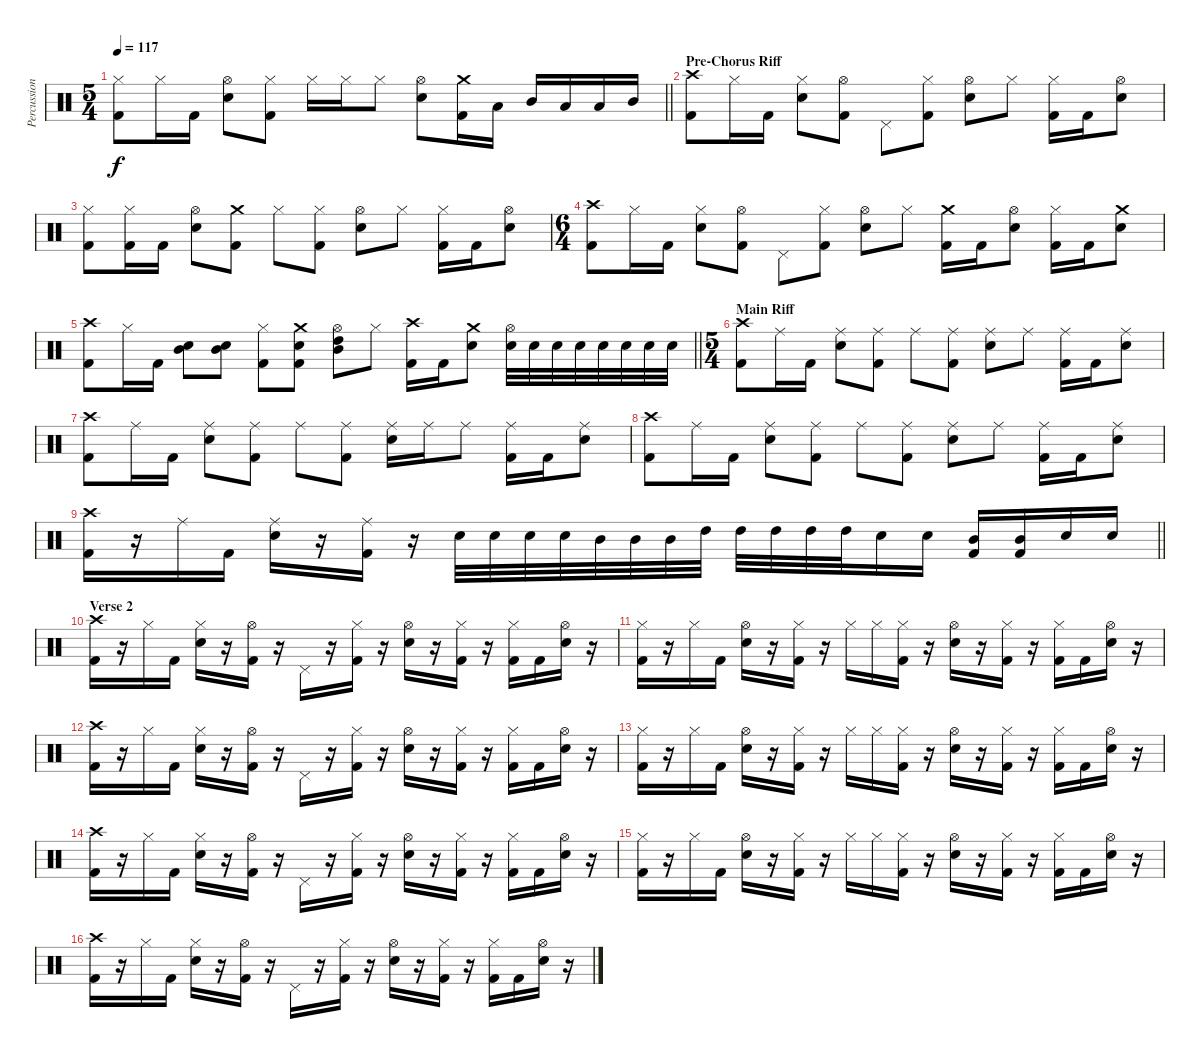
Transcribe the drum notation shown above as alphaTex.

\track ("Percussion" "Percussion") {instrument percussion}
\staff {score}
\articulation defaults
\ts (5 4)
\tempo 117
\clef neutral
\barLineRight lightlight
\ks c
("Hi-Hat (closed)" "Kick (hit) 2").8{dy f} "Hi-Hat (closed)".16 "Kick (hit) 2".16 ("Hi-Hat (open)" "Electric Snare (hit)").8 ("Hi-Hat (closed)" "Kick (hit) 2").8 "Hi-Hat (closed)".16 "Hi-Hat (closed)".16 "Hi-Hat (closed)".8 ("Hi-Hat (open)" "Electric Snare (hit)").8 ("Crash medium (hit)" "Kick (hit) 2").16 "Low Tom (hit)".16 "Mid Tom (hit)".16 "Low Tom (hit)".16 "Low Tom (hit)".16 "Mid Tom (hit)".16 |
\section ("" "Pre-Chorus Riff")
("Crash high (hit)" "Kick (hit) 2").8 "Hi-Hat (closed)".16 "Kick (hit) 2".16 ("Hi-Hat (closed)" "Electric Snare (hit)").8 ("Hi-Hat (open)" "Kick (hit) 2").8 "Pedal Hi-Hat (hit)".8 ("Hi-Hat (closed)" "Kick (hit) 2").8 ("Hi-Hat (open)" "Electric Snare (hit)").8 "Hi-Hat (closed)".8 ("Hi-Hat (closed)" "Kick (hit) 2").16 "Kick (hit) 2".16 ("Hi-Hat (open)" "Electric Snare (hit)").8 |
("Hi-Hat (closed)" "Kick (hit) 2").8 ("Hi-Hat (closed)" "Kick (hit) 2").16 "Kick (hit) 2".16 ("Hi-Hat (open)" "Electric Snare (hit)").8 ("Crash medium (hit)" "Kick (hit) 2").8 "Hi-Hat (closed)".8 ("Hi-Hat (closed)" "Kick (hit) 2").8 ("Hi-Hat (open)" "Electric Snare (hit)").8 "Hi-Hat (closed)".8 ("Hi-Hat (closed)" "Kick (hit) 2").16 "Kick (hit) 2".16 ("Hi-Hat (open)" "Electric Snare (hit)").8 |
\ts (6 4)
("Crash high (hit)" "Kick (hit) 2").8 "Hi-Hat (closed)".16 "Kick (hit) 2".16 ("Hi-Hat (closed)" "Electric Snare (hit)").8 ("Hi-Hat (open)" "Kick (hit) 2").8 "Pedal Hi-Hat (hit)".8 ("Hi-Hat (closed)" "Kick (hit) 2").8 ("Hi-Hat (open)" "Electric Snare (hit)").8 "Hi-Hat (closed)".8 ("Crash medium (hit)" "Kick (hit) 2").16 "Kick (hit) 2".16 ("Hi-Hat (open)" "Electric Snare (hit)").8 ("Hi-Hat (closed)" "Kick (hit) 2").16 "Kick (hit) 2".16 ("Crash medium (hit)" "Electric Snare (hit)").8 |
\barLineRight lightlight
("Crash high (hit)" "Kick (hit) 2").8 "Hi-Hat (closed)".16 "Kick (hit) 2".16 ("Mid Tom (hit)" "Electric Snare (hit)").8 ("Mid Tom (hit)" "Electric Snare (hit)").8 ("Hi-Hat (closed)" "Kick (hit) 2").8 ("Crash medium (hit)" "Electric Snare (hit)" "Kick (hit) 2").8 ("Hi-Hat (open)" "High Tom (hit)" "Mid Tom (hit)").8 "Hi-Hat (closed)".8 ("Crash high (hit)" "Kick (hit) 2").16 "Kick (hit) 2".16 ("Crash medium (hit)" "Electric Snare (hit)").8 ("Hi-Hat (open)" "Electric Snare (hit)").32 "Electric Snare (hit)".32 "Electric Snare (hit)".32 "Electric Snare (hit)".32 "Electric Snare (hit)".32 "Electric Snare (hit)".32 "Electric Snare (hit)".32 "Electric Snare (hit)".32 |
\ts (5 4)
\section ("" "Main Riff")
("Crash high (hit)" "Kick (hit) 2").8 "Ride (middle)".16 "Kick (hit) 2".16 ("Ride (middle)" "Electric Snare (hit)").8 ("Ride (middle)" "Kick (hit) 2").8 "Ride (middle)".8 ("Ride (middle)" "Kick (hit) 2").8 ("Ride (middle)" "Electric Snare (hit)").8 "Ride (middle)".8 ("Ride (middle)" "Kick (hit) 2").16 "Kick (hit) 2".16 ("Ride (middle)" "Electric Snare (hit)").8 |
("Crash high (hit)" "Kick (hit) 2").8 "Ride (middle)".16 "Kick (hit) 2".16 ("Ride (middle)" "Electric Snare (hit)").8 ("Ride (middle)" "Kick (hit) 2").8 "Ride (middle)".8 ("Ride (middle)" "Kick (hit) 2").8 ("Ride (middle)" "Electric Snare (hit)").16 "Ride (middle)".16 "Ride (middle)".8 ("Ride (middle)" "Kick (hit) 2").16 "Kick (hit) 2".16 ("Ride (middle)" "Electric Snare (hit)").8 |
("Crash high (hit)" "Kick (hit) 2").8 "Ride (middle)".16 "Kick (hit) 2".16 ("Ride (middle)" "Electric Snare (hit)").8 ("Ride (middle)" "Kick (hit) 2").8 "Ride (middle)".8 ("Ride (middle)" "Kick (hit) 2").8 ("Ride (middle)" "Electric Snare (hit)").8 "Ride (middle)".8 ("Ride (middle)" "Kick (hit) 2").16 "Kick (hit) 2".16 ("Ride (middle)" "Electric Snare (hit)").8 |
\barLineRight lightlight
("Crash high (hit)" "Kick (hit) 2").16 r.16 "Ride (middle)".16 "Kick (hit) 2".16 ("Ride (middle)" "Electric Snare (hit)").16 r.16 ("Ride (middle)" "Kick (hit) 2").16 r.16 "Electric Snare (hit)".32 "Electric Snare (hit)".32 "Electric Snare (hit)".32 "Electric Snare (hit)".32 "Mid Tom (hit)".32 "Mid Tom (hit)".32 "Mid Tom (hit)".32 "High Tom (hit)".32 "High Tom (hit)".32 "High Tom (hit)".32 "High Tom (hit)".32 "High Tom (hit)".32 "Electric Snare (hit)".16 "Electric Snare (hit)".16 ("Mid Tom (hit)" "Kick (hit) 2").16 ("Mid Tom (hit)" "Kick (hit) 2").16 "Electric Snare (hit)".16 "Electric Snare (hit)".16 |
\section ("" "Verse 2")
("Crash high (hit)" "Kick (hit) 2").16 r.16 "Hi-Hat (closed)".16 "Kick (hit) 2".16 ("Hi-Hat (closed)" "Electric Snare (hit)").16 r.16 ("Hi-Hat (open)" "Kick (hit) 2").16 r.16 "Pedal Hi-Hat (hit)".16 r.16 ("Hi-Hat (closed)" "Kick (hit) 2").16 r.16 ("Hi-Hat (open)" "Electric Snare (hit)").16 r.16 ("Hi-Hat (closed)" "Kick (hit) 2").16 r.16 ("Hi-Hat (closed)" "Kick (hit) 2").16 "Kick (hit) 2".16 ("Hi-Hat (open)" "Electric Snare (hit)").16 r.16 |
("Hi-Hat (closed)" "Kick (hit) 2").16 r.16 "Hi-Hat (closed)".16 "Kick (hit) 2".16 ("Hi-Hat (open)" "Electric Snare (hit)").16 r.16 ("Hi-Hat (closed)" "Kick (hit) 2").16 r.16 "Hi-Hat (closed)".16 "Hi-Hat (closed)".16 ("Hi-Hat (closed)" "Kick (hit) 2").16 r.16 ("Hi-Hat (open)" "Electric Snare (hit)").16 r.16 ("Hi-Hat (closed)" "Kick (hit) 2").16 r.16 ("Hi-Hat (closed)" "Kick (hit) 2").16 "Kick (hit) 2".16 ("Hi-Hat (open)" "Electric Snare (hit)").16 r.16 |
("Crash high (hit)" "Kick (hit) 2").16 r.16 "Hi-Hat (closed)".16 "Kick (hit) 2".16 ("Hi-Hat (closed)" "Electric Snare (hit)").16 r.16 ("Hi-Hat (open)" "Kick (hit) 2").16 r.16 "Pedal Hi-Hat (hit)".16 r.16 ("Hi-Hat (closed)" "Kick (hit) 2").16 r.16 ("Hi-Hat (open)" "Electric Snare (hit)").16 r.16 ("Hi-Hat (closed)" "Kick (hit) 2").16 r.16 ("Hi-Hat (closed)" "Kick (hit) 2").16 "Kick (hit) 2".16 ("Hi-Hat (open)" "Electric Snare (hit)").16 r.16 |
("Hi-Hat (closed)" "Kick (hit) 2").16 r.16 "Hi-Hat (closed)".16 "Kick (hit) 2".16 ("Hi-Hat (open)" "Electric Snare (hit)").16 r.16 ("Hi-Hat (closed)" "Kick (hit) 2").16 r.16 "Hi-Hat (closed)".16 "Hi-Hat (closed)".16 ("Hi-Hat (closed)" "Kick (hit) 2").16 r.16 ("Hi-Hat (open)" "Electric Snare (hit)").16 r.16 ("Hi-Hat (closed)" "Kick (hit) 2").16 r.16 ("Hi-Hat (closed)" "Kick (hit) 2").16 "Kick (hit) 2".16 ("Hi-Hat (open)" "Electric Snare (hit)").16 r.16 |
("Crash high (hit)" "Kick (hit) 2").16 r.16 "Hi-Hat (closed)".16 "Kick (hit) 2".16 ("Hi-Hat (closed)" "Electric Snare (hit)").16 r.16 ("Hi-Hat (open)" "Kick (hit) 2").16 r.16 "Pedal Hi-Hat (hit)".16 r.16 ("Hi-Hat (closed)" "Kick (hit) 2").16 r.16 ("Hi-Hat (open)" "Electric Snare (hit)").16 r.16 ("Hi-Hat (closed)" "Kick (hit) 2").16 r.16 ("Hi-Hat (closed)" "Kick (hit) 2").16 "Kick (hit) 2".16 ("Hi-Hat (open)" "Electric Snare (hit)").16 r.16 |
("Hi-Hat (closed)" "Kick (hit) 2").16 r.16 "Hi-Hat (closed)".16 "Kick (hit) 2".16 ("Hi-Hat (open)" "Electric Snare (hit)").16 r.16 ("Hi-Hat (closed)" "Kick (hit) 2").16 r.16 "Hi-Hat (closed)".16 "Hi-Hat (closed)".16 ("Hi-Hat (closed)" "Kick (hit) 2").16 r.16 ("Hi-Hat (open)" "Electric Snare (hit)").16 r.16 ("Hi-Hat (closed)" "Kick (hit) 2").16 r.16 ("Hi-Hat (closed)" "Kick (hit) 2").16 "Kick (hit) 2".16 ("Hi-Hat (open)" "Electric Snare (hit)").16 r.16 |
("Crash high (hit)" "Kick (hit) 2").16 r.16 "Hi-Hat (closed)".16 "Kick (hit) 2".16 ("Hi-Hat (closed)" "Electric Snare (hit)").16 r.16 ("Hi-Hat (open)" "Kick (hit) 2").16 r.16 "Pedal Hi-Hat (hit)".16 r.16 ("Hi-Hat (closed)" "Kick (hit) 2").16 r.16 ("Hi-Hat (open)" "Electric Snare (hit)").16 r.16 ("Hi-Hat (closed)" "Kick (hit) 2").16 r.16 ("Hi-Hat (closed)" "Kick (hit) 2").16 "Kick (hit) 2".16 ("Hi-Hat (open)" "Electric Snare (hit)").16 r.16
